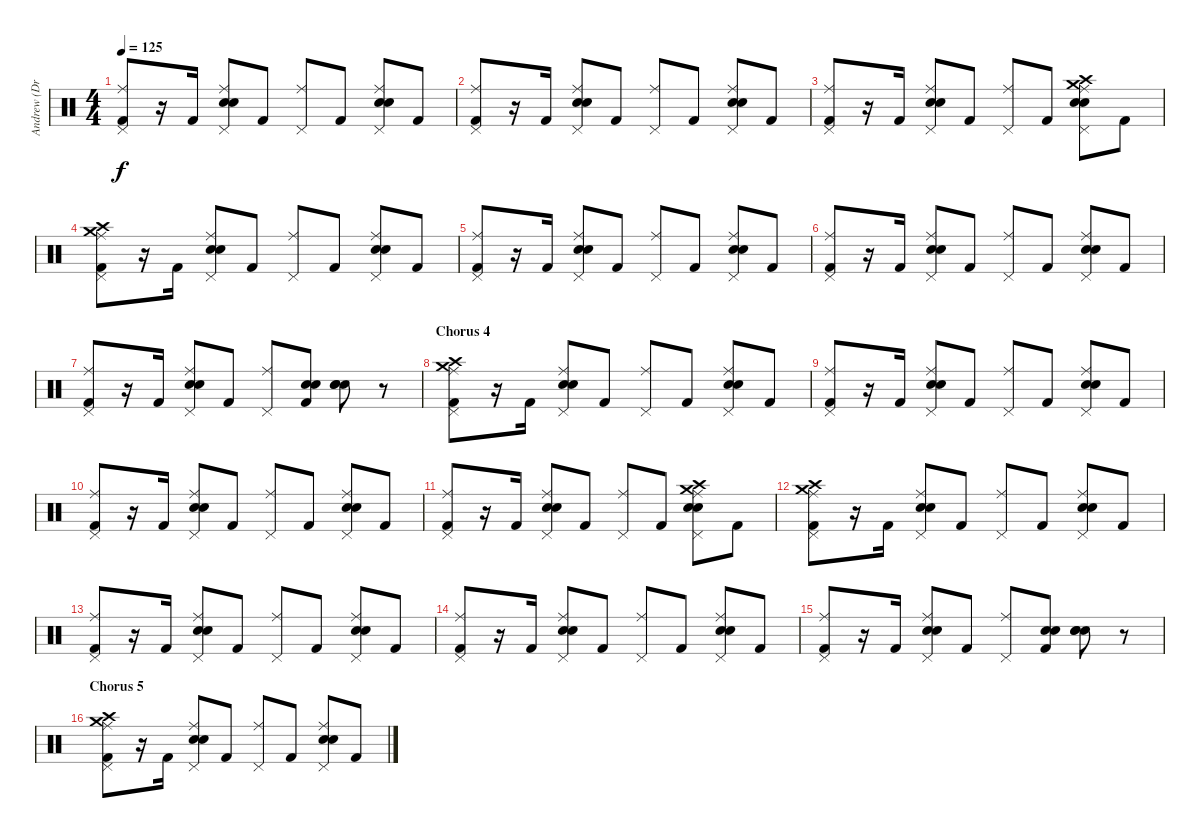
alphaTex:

\track ("Andrew (Drums)" "Andrew (Dr") {instrument percussion}
\staff {score}
\articulation defaults
\ts (4 4)
\tempo 125
\clef neutral
\ks c
("Pedal Hi-Hat (hit)" "Ride (middle)" "Kick (hit) 2").8{dy f} r.16 "Kick (hit) 2".16 ("Pedal Hi-Hat (hit)" "Ride (middle)" "Snare (hit) 2" "Electric Snare (hit)").8 "Kick (hit) 2".8 ("Pedal Hi-Hat (hit)" "Ride (middle)").8 "Kick (hit) 2".8 ("Pedal Hi-Hat (hit)" "Ride (middle)" "Snare (hit) 2" "Electric Snare (hit)").8 "Kick (hit) 2".8 |
("Pedal Hi-Hat (hit)" "Ride (middle)" "Kick (hit) 2").8 r.16 "Kick (hit) 2".16 ("Pedal Hi-Hat (hit)" "Ride (middle)" "Snare (hit) 2" "Electric Snare (hit)").8 "Kick (hit) 2".8 ("Pedal Hi-Hat (hit)" "Ride (middle)").8 "Kick (hit) 2".8 ("Pedal Hi-Hat (hit)" "Ride (middle)" "Snare (hit) 2" "Electric Snare (hit)").8 "Kick (hit) 2".8 |
("Pedal Hi-Hat (hit)" "Ride (middle)" "Kick (hit) 2").8 r.16 "Kick (hit) 2".16 ("Pedal Hi-Hat (hit)" "Ride (middle)" "Snare (hit) 2" "Electric Snare (hit)").8 "Kick (hit) 2".8 ("Pedal Hi-Hat (hit)" "Ride (middle)").8 "Kick (hit) 2".8 ("Crash medium (hit)" "Crash high (hit)" "Pedal Hi-Hat (hit)" "Ride (middle)" "Snare (hit) 2" "Electric Snare (hit)").8 "Kick (hit) 2".8 |
("Crash high (hit)" "Crash medium (hit)" "Pedal Hi-Hat (hit)" "Ride (middle)" "Kick (hit) 2").8 r.16 "Kick (hit) 2".16 ("Pedal Hi-Hat (hit)" "Ride (middle)" "Snare (hit) 2" "Electric Snare (hit)").8 "Kick (hit) 2".8 ("Pedal Hi-Hat (hit)" "Ride (middle)").8 "Kick (hit) 2".8 ("Pedal Hi-Hat (hit)" "Ride (middle)" "Snare (hit) 2" "Electric Snare (hit)").8 "Kick (hit) 2".8 |
("Pedal Hi-Hat (hit)" "Ride (middle)" "Kick (hit) 2").8 r.16 "Kick (hit) 2".16 ("Pedal Hi-Hat (hit)" "Ride (middle)" "Snare (hit) 2" "Electric Snare (hit)").8 "Kick (hit) 2".8 ("Pedal Hi-Hat (hit)" "Ride (middle)").8 "Kick (hit) 2".8 ("Pedal Hi-Hat (hit)" "Ride (middle)" "Snare (hit) 2" "Electric Snare (hit)").8 "Kick (hit) 2".8 |
("Pedal Hi-Hat (hit)" "Ride (middle)" "Kick (hit) 2").8 r.16 "Kick (hit) 2".16 ("Pedal Hi-Hat (hit)" "Ride (middle)" "Snare (hit) 2" "Electric Snare (hit)").8 "Kick (hit) 2".8 ("Pedal Hi-Hat (hit)" "Ride (middle)").8 "Kick (hit) 2".8 ("Pedal Hi-Hat (hit)" "Ride (middle)" "Snare (hit) 2" "Electric Snare (hit)").8 "Kick (hit) 2".8 |
("Pedal Hi-Hat (hit)" "Ride (middle)" "Kick (hit) 2").8 r.16 "Kick (hit) 2".16 ("Pedal Hi-Hat (hit)" "Ride (middle)" "Snare (hit) 2" "Electric Snare (hit)").8 "Kick (hit) 2".8 ("Pedal Hi-Hat (hit)" "Ride (middle)").8 ("Electric Snare (hit)" "Snare (hit) 2" "Kick (hit) 2").8 ("Electric Snare (hit)" "Snare (hit) 2" "Electric Snare (hit)").8 r.8 |
\section ("" "Chorus 4")
("Crash medium (hit)" "Crash high (hit)" "Pedal Hi-Hat (hit)" "Ride (middle)" "Kick (hit) 2").8 r.16 "Kick (hit) 2".16 ("Pedal Hi-Hat (hit)" "Ride (middle)" "Snare (hit) 2" "Electric Snare (hit)").8 "Kick (hit) 2".8 ("Pedal Hi-Hat (hit)" "Ride (middle)").8 "Kick (hit) 2".8 ("Pedal Hi-Hat (hit)" "Ride (middle)" "Snare (hit) 2" "Electric Snare (hit)").8 "Kick (hit) 2".8 |
("Pedal Hi-Hat (hit)" "Ride (middle)" "Kick (hit) 2").8 r.16 "Kick (hit) 2".16 ("Pedal Hi-Hat (hit)" "Ride (middle)" "Snare (hit) 2" "Electric Snare (hit)").8 "Kick (hit) 2".8 ("Pedal Hi-Hat (hit)" "Ride (middle)").8 "Kick (hit) 2".8 ("Pedal Hi-Hat (hit)" "Ride (middle)" "Snare (hit) 2" "Electric Snare (hit)").8 "Kick (hit) 2".8 |
("Pedal Hi-Hat (hit)" "Ride (middle)" "Kick (hit) 2").8 r.16 "Kick (hit) 2".16 ("Pedal Hi-Hat (hit)" "Ride (middle)" "Snare (hit) 2" "Electric Snare (hit)").8 "Kick (hit) 2".8 ("Pedal Hi-Hat (hit)" "Ride (middle)").8 "Kick (hit) 2".8 ("Pedal Hi-Hat (hit)" "Ride (middle)" "Snare (hit) 2" "Electric Snare (hit)").8 "Kick (hit) 2".8 |
("Pedal Hi-Hat (hit)" "Ride (middle)" "Kick (hit) 2").8 r.16 "Kick (hit) 2".16 ("Pedal Hi-Hat (hit)" "Ride (middle)" "Snare (hit) 2" "Electric Snare (hit)").8 "Kick (hit) 2".8 ("Pedal Hi-Hat (hit)" "Ride (middle)").8 "Kick (hit) 2".8 ("Crash medium (hit)" "Crash high (hit)" "Pedal Hi-Hat (hit)" "Ride (middle)" "Snare (hit) 2" "Electric Snare (hit)").8 "Kick (hit) 2".8 |
("Crash high (hit)" "Crash medium (hit)" "Pedal Hi-Hat (hit)" "Ride (middle)" "Kick (hit) 2").8 r.16 "Kick (hit) 2".16 ("Pedal Hi-Hat (hit)" "Ride (middle)" "Snare (hit) 2" "Electric Snare (hit)").8 "Kick (hit) 2".8 ("Pedal Hi-Hat (hit)" "Ride (middle)").8 "Kick (hit) 2".8 ("Pedal Hi-Hat (hit)" "Ride (middle)" "Snare (hit) 2" "Electric Snare (hit)").8 "Kick (hit) 2".8 |
("Pedal Hi-Hat (hit)" "Ride (middle)" "Kick (hit) 2").8 r.16 "Kick (hit) 2".16 ("Pedal Hi-Hat (hit)" "Ride (middle)" "Snare (hit) 2" "Electric Snare (hit)").8 "Kick (hit) 2".8 ("Pedal Hi-Hat (hit)" "Ride (middle)").8 "Kick (hit) 2".8 ("Pedal Hi-Hat (hit)" "Ride (middle)" "Snare (hit) 2" "Electric Snare (hit)").8 "Kick (hit) 2".8 |
("Pedal Hi-Hat (hit)" "Ride (middle)" "Kick (hit) 2").8 r.16 "Kick (hit) 2".16 ("Pedal Hi-Hat (hit)" "Ride (middle)" "Snare (hit) 2" "Electric Snare (hit)").8 "Kick (hit) 2".8 ("Pedal Hi-Hat (hit)" "Ride (middle)").8 "Kick (hit) 2".8 ("Pedal Hi-Hat (hit)" "Ride (middle)" "Snare (hit) 2" "Electric Snare (hit)").8 "Kick (hit) 2".8 |
("Pedal Hi-Hat (hit)" "Ride (middle)" "Kick (hit) 2").8 r.16 "Kick (hit) 2".16 ("Pedal Hi-Hat (hit)" "Ride (middle)" "Snare (hit) 2" "Electric Snare (hit)").8 "Kick (hit) 2".8 ("Pedal Hi-Hat (hit)" "Ride (middle)").8 ("Electric Snare (hit)" "Snare (hit) 2" "Kick (hit) 2").8 ("Electric Snare (hit)" "Snare (hit) 2" "Electric Snare (hit)").8 r.8 |
\section ("" "Chorus 5")
("Crash medium (hit)" "Crash high (hit)" "Pedal Hi-Hat (hit)" "Ride (middle)" "Kick (hit) 2").8 r.16 "Kick (hit) 2".16 ("Pedal Hi-Hat (hit)" "Ride (middle)" "Snare (hit) 2" "Electric Snare (hit)").8 "Kick (hit) 2".8 ("Pedal Hi-Hat (hit)" "Ride (middle)").8 "Kick (hit) 2".8 ("Pedal Hi-Hat (hit)" "Ride (middle)" "Snare (hit) 2" "Electric Snare (hit)").8 "Kick (hit) 2".8
